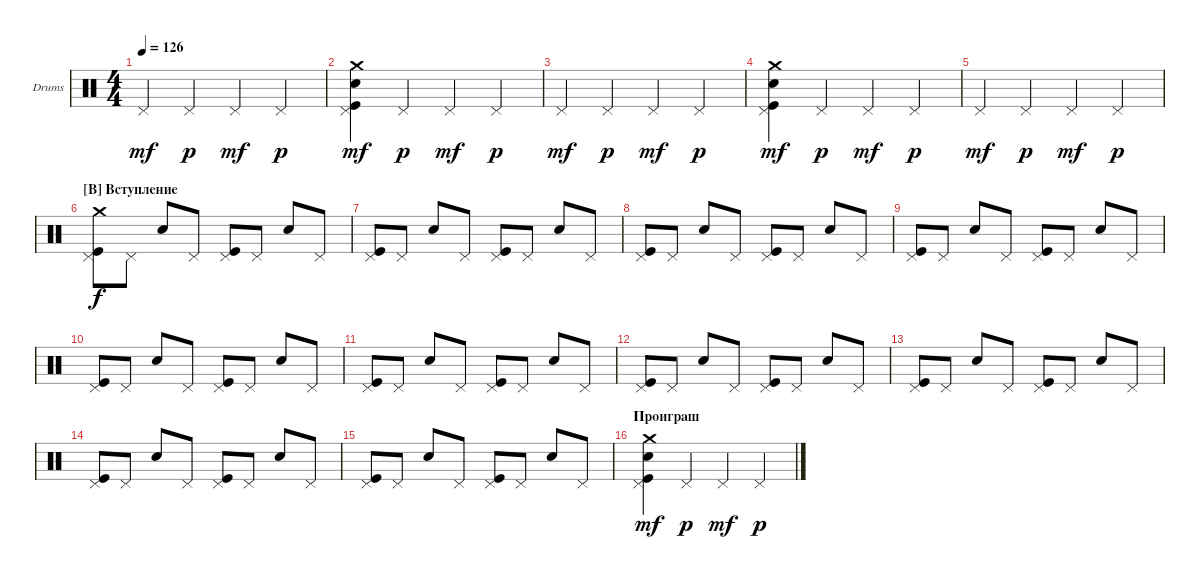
\defaultSystemsLayout 4
\bracketExtendMode groupsimilarinstruments
\firstSystemTrackNameOrientation horizontal
\otherSystemsTrackNameOrientation horizontal
\track ("Е. Кулаков" "Drums") {instrument percussion}
\staff {score}
\articulation defaults
\ts (4 4)
\tempo 126
\clef neutral
\ks c "Pedal Hi-Hat (hit)".4{dy mf} "Pedal Hi-Hat (hit)".4{dy p} "Pedal Hi-Hat (hit)".4{dy mf} "Pedal Hi-Hat (hit)".4{dy p}
|
("Snare (hit) 2" "Kick (hit)" "Crash medium (hit)" "Pedal Hi-Hat (hit)").4{dy mf} "Pedal Hi-Hat (hit)".4{dy p} "Pedal Hi-Hat (hit)".4{dy mf} "Pedal Hi-Hat (hit)".4{dy p} |
"Pedal Hi-Hat (hit)".4{dy mf} "Pedal Hi-Hat (hit)".4{dy p} "Pedal Hi-Hat (hit)".4{dy mf} "Pedal Hi-Hat (hit)".4{dy p} |
("Snare (hit) 2" "Kick (hit)" "Crash medium (hit)" "Pedal Hi-Hat (hit)").4{dy mf} "Pedal Hi-Hat (hit)".4{dy p} "Pedal Hi-Hat (hit)".4{dy mf} "Pedal Hi-Hat (hit)".4{dy p} |
"Pedal Hi-Hat (hit)".4{dy mf} "Pedal Hi-Hat (hit)".4{dy p} "Pedal Hi-Hat (hit)".4{dy mf} "Pedal Hi-Hat (hit)".4{dy p} |
\section ("B" "Вступление")
("Kick (hit)" "Pedal Hi-Hat (hit)" "Crash medium (hit)").8{dy f} "Pedal Hi-Hat (hit)".8 "Snare (hit) 2".8 "Pedal Hi-Hat (hit)".8 ("Kick (hit)" "Pedal Hi-Hat (hit)").8 "Pedal Hi-Hat (hit)".8 "Snare (hit) 2".8 "Pedal Hi-Hat (hit)".8 |
("Kick (hit)" "Pedal Hi-Hat (hit)").8 "Pedal Hi-Hat (hit)".8 "Snare (hit) 2".8 "Pedal Hi-Hat (hit)".8 ("Kick (hit)" "Pedal Hi-Hat (hit)").8 "Pedal Hi-Hat (hit)".8 "Snare (hit) 2".8 "Pedal Hi-Hat (hit)".8 |
("Kick (hit)" "Pedal Hi-Hat (hit)").8 "Pedal Hi-Hat (hit)".8 "Snare (hit) 2".8 "Pedal Hi-Hat (hit)".8 ("Kick (hit)" "Pedal Hi-Hat (hit)").8 "Pedal Hi-Hat (hit)".8 "Snare (hit) 2".8 "Pedal Hi-Hat (hit)".8 |
("Kick (hit)" "Pedal Hi-Hat (hit)").8 "Pedal Hi-Hat (hit)".8 "Snare (hit) 2".8 "Pedal Hi-Hat (hit)".8 ("Kick (hit)" "Pedal Hi-Hat (hit)").8 "Pedal Hi-Hat (hit)".8 "Snare (hit) 2".8 "Pedal Hi-Hat (hit)".8 |
("Kick (hit)" "Pedal Hi-Hat (hit)").8 "Pedal Hi-Hat (hit)".8 "Snare (hit) 2".8 "Pedal Hi-Hat (hit)".8 ("Kick (hit)" "Pedal Hi-Hat (hit)").8 "Pedal Hi-Hat (hit)".8 "Snare (hit) 2".8 "Pedal Hi-Hat (hit)".8 |
("Kick (hit)" "Pedal Hi-Hat (hit)").8 "Pedal Hi-Hat (hit)".8 "Snare (hit) 2".8 "Pedal Hi-Hat (hit)".8 ("Kick (hit)" "Pedal Hi-Hat (hit)").8 "Pedal Hi-Hat (hit)".8 "Snare (hit) 2".8 "Pedal Hi-Hat (hit)".8 |
("Kick (hit)" "Pedal Hi-Hat (hit)").8 "Pedal Hi-Hat (hit)".8 "Snare (hit) 2".8 "Pedal Hi-Hat (hit)".8 ("Kick (hit)" "Pedal Hi-Hat (hit)").8 "Pedal Hi-Hat (hit)".8 "Snare (hit) 2".8 "Pedal Hi-Hat (hit)".8 |
("Kick (hit)" "Pedal Hi-Hat (hit)").8 "Pedal Hi-Hat (hit)".8 "Snare (hit) 2".8 "Pedal Hi-Hat (hit)".8 ("Kick (hit)" "Pedal Hi-Hat (hit)").8 "Pedal Hi-Hat (hit)".8 "Snare (hit) 2".8 "Pedal Hi-Hat (hit)".8 |
("Kick (hit)" "Pedal Hi-Hat (hit)").8 "Pedal Hi-Hat (hit)".8 "Snare (hit) 2".8 "Pedal Hi-Hat (hit)".8 ("Kick (hit)" "Pedal Hi-Hat (hit)").8 "Pedal Hi-Hat (hit)".8 "Snare (hit) 2".8 "Pedal Hi-Hat (hit)".8 |
("Kick (hit)" "Pedal Hi-Hat (hit)").8 "Pedal Hi-Hat (hit)".8 "Snare (hit) 2".8 "Pedal Hi-Hat (hit)".8 ("Kick (hit)" "Pedal Hi-Hat (hit)").8 "Pedal Hi-Hat (hit)".8 "Snare (hit) 2".8 "Pedal Hi-Hat (hit)".8 |
\section ("" "Проиграш")
("Snare (hit) 2" "Kick (hit)" "Crash medium (hit)" "Pedal Hi-Hat (hit)").4{dy mf} "Pedal Hi-Hat (hit)".4{dy p} "Pedal Hi-Hat (hit)".4{dy mf} "Pedal Hi-Hat (hit)".4{dy p}
